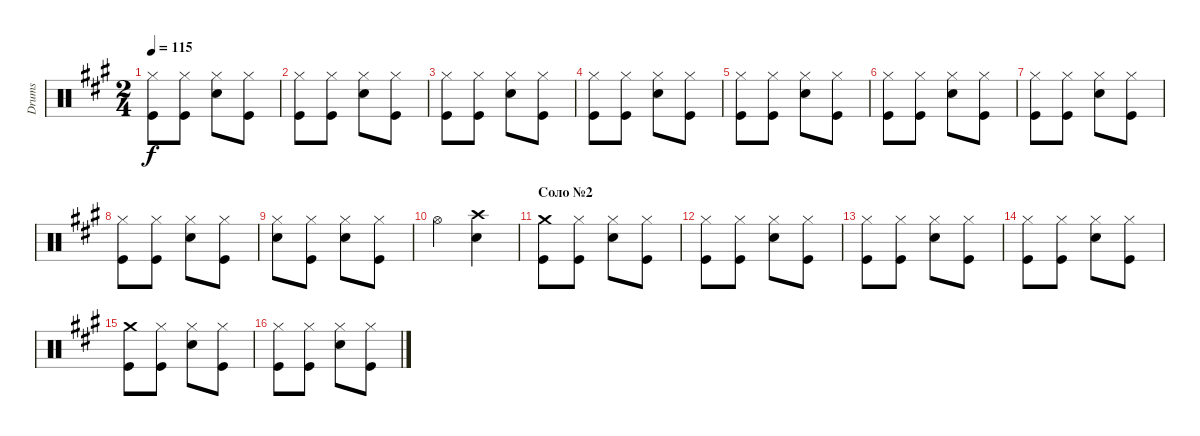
\track ("Drums" "Drums") {instrument percussion}
\staff {score}
\articulation defaults
\ts (2 4)
\tempo 115
\clef neutral
\ks f#minor
("Hi-Hat (closed)" "Kick (hit)").8{dy f} ("Hi-Hat (closed)" "Kick (hit)").8 ("Hi-Hat (closed)" "Electric Snare (hit)").8 ("Hi-Hat (closed)" "Kick (hit)").8 |
("Hi-Hat (closed)" "Kick (hit)").8 ("Hi-Hat (closed)" "Kick (hit)").8 ("Hi-Hat (closed)" "Electric Snare (hit)").8 ("Hi-Hat (closed)" "Kick (hit)").8 |
("Hi-Hat (closed)" "Kick (hit)").8 ("Hi-Hat (closed)" "Kick (hit)").8 ("Hi-Hat (closed)" "Electric Snare (hit)").8 ("Hi-Hat (closed)" "Kick (hit)").8 |
("Hi-Hat (closed)" "Kick (hit)").8 ("Hi-Hat (closed)" "Kick (hit)").8 ("Hi-Hat (closed)" "Electric Snare (hit)").8 ("Hi-Hat (closed)" "Kick (hit)").8 |
("Hi-Hat (closed)" "Kick (hit)").8 ("Hi-Hat (closed)" "Kick (hit)").8 ("Hi-Hat (closed)" "Electric Snare (hit)").8 ("Hi-Hat (closed)" "Kick (hit)").8 |
("Hi-Hat (closed)" "Kick (hit)").8 ("Hi-Hat (closed)" "Kick (hit)").8 ("Hi-Hat (closed)" "Electric Snare (hit)").8 ("Hi-Hat (closed)" "Kick (hit)").8 |
("Hi-Hat (closed)" "Kick (hit)").8 ("Hi-Hat (closed)" "Kick (hit)").8 ("Hi-Hat (closed)" "Electric Snare (hit)").8 ("Hi-Hat (closed)" "Kick (hit)").8 |
("Hi-Hat (closed)" "Kick (hit)").8 ("Hi-Hat (closed)" "Kick (hit)").8 ("Hi-Hat (closed)" "Electric Snare (hit)").8 ("Hi-Hat (closed)" "Kick (hit)").8 |
("Hi-Hat (closed)" "Electric Snare (hit)").8 ("Hi-Hat (closed)" "Kick (hit)").8 ("Hi-Hat (closed)" "Electric Snare (hit)").8 ("Hi-Hat (closed)" "Kick (hit)").8 |
"Hi-Hat (open)".4 ("Electric Snare (hit)" "Crash high (hit)").4 |
\section ("" "Соло №2")
("Crash medium (hit)" "Kick (hit)").8 ("Hi-Hat (closed)" "Kick (hit)").8 ("Hi-Hat (closed)" "Electric Snare (hit)").8 ("Hi-Hat (closed)" "Kick (hit)").8 |
("Hi-Hat (closed)" "Kick (hit)").8 ("Hi-Hat (closed)" "Kick (hit)").8 ("Hi-Hat (closed)" "Electric Snare (hit)").8 ("Hi-Hat (closed)" "Kick (hit)").8 |
("Hi-Hat (closed)" "Kick (hit)").8 ("Hi-Hat (closed)" "Kick (hit)").8 ("Hi-Hat (closed)" "Electric Snare (hit)").8 ("Hi-Hat (closed)" "Kick (hit)").8 |
("Hi-Hat (closed)" "Kick (hit)").8 ("Hi-Hat (closed)" "Kick (hit)").8 ("Hi-Hat (closed)" "Electric Snare (hit)").8 ("Hi-Hat (closed)" "Kick (hit)").8 |
("Crash medium (hit)" "Kick (hit)").8 ("Hi-Hat (closed)" "Kick (hit)").8 ("Hi-Hat (closed)" "Electric Snare (hit)").8 ("Hi-Hat (closed)" "Kick (hit)").8 |
("Hi-Hat (closed)" "Kick (hit)").8 ("Hi-Hat (closed)" "Kick (hit)").8 ("Hi-Hat (closed)" "Electric Snare (hit)").8 ("Hi-Hat (closed)" "Kick (hit)").8
